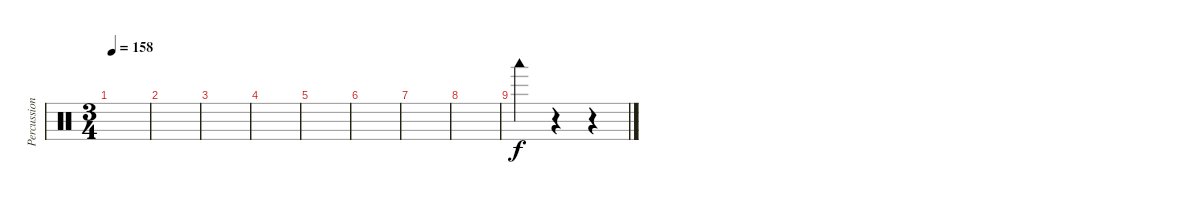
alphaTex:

\track ("Percussion" "Percussion") {instrument percussion}
\staff {score}
\articulation defaults
\ts (3 4)
\tempo 158
\clef neutral
\ks c
|
|
|
|
|
|
|
|
"Woodblock low (hit)".4 r.4 r.4
